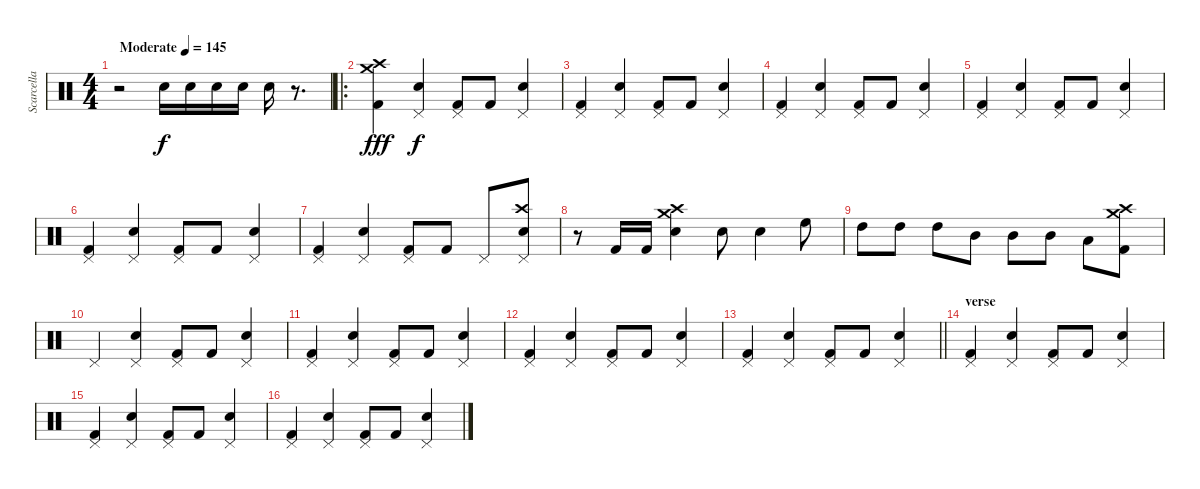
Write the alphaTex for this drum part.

\track ("Scarcella" "Scarcella") {instrument percussion}
\staff {score}
\articulation defaults
\ts (4 4)
\tempo (145 "Moderate")
\clef neutral
\ks c
r.2{dy f} "Snare (hit) 2".16 "Snare (hit) 2".16 "Snare (hit) 2".16 "Snare (hit) 2".16 "Snare (hit) 2".16 r.8{d} |
\ro
("Crash high (hit)" "Crash medium (hit)" "Kick (hit) 2").4{dy fff} ("Pedal Hi-Hat (hit)" "Snare (hit) 2").4{dy f} ("Pedal Hi-Hat (hit)" "Kick (hit) 2").8 "Kick (hit) 2".8 ("Pedal Hi-Hat (hit)" "Snare (hit) 2").4 |
("Pedal Hi-Hat (hit)" "Kick (hit) 2").4 ("Pedal Hi-Hat (hit)" "Snare (hit) 2").4 ("Pedal Hi-Hat (hit)" "Kick (hit) 2").8 "Kick (hit) 2".8 ("Pedal Hi-Hat (hit)" "Snare (hit) 2").4 |
("Pedal Hi-Hat (hit)" "Kick (hit) 2").4 ("Pedal Hi-Hat (hit)" "Snare (hit) 2").4 ("Pedal Hi-Hat (hit)" "Kick (hit) 2").8 "Kick (hit) 2".8 ("Pedal Hi-Hat (hit)" "Snare (hit) 2").4 |
("Pedal Hi-Hat (hit)" "Kick (hit) 2").4 ("Pedal Hi-Hat (hit)" "Snare (hit) 2").4 ("Pedal Hi-Hat (hit)" "Kick (hit) 2").8 "Kick (hit) 2".8 ("Pedal Hi-Hat (hit)" "Snare (hit) 2").4 |
("Pedal Hi-Hat (hit)" "Kick (hit) 2").4 ("Pedal Hi-Hat (hit)" "Snare (hit) 2").4 ("Pedal Hi-Hat (hit)" "Kick (hit) 2").8 "Kick (hit) 2".8 ("Pedal Hi-Hat (hit)" "Snare (hit) 2").4 |
("Pedal Hi-Hat (hit)" "Kick (hit) 2").4 ("Pedal Hi-Hat (hit)" "Snare (hit) 2").4 ("Pedal Hi-Hat (hit)" "Kick (hit) 2").8 "Kick (hit) 2".8 "Pedal Hi-Hat (hit)".8 ("Pedal Hi-Hat (hit)" "Snare (hit) 2" "Crash high (hit)").8 |
r.8 "Kick (hit) 2".16 "Kick (hit) 2".16 ("Crash high (hit)" "Crash medium (hit)" "Snare (hit) 2").4 "Snare (hit) 2".8 "Snare (hit) 2".4 "High Floor Tom (hit)".8 |
"High Tom (hit)".8 "High Tom (hit)".8 "High Tom (hit)".8 "Mid Tom (hit)".8 "Mid Tom (hit)".8 "Mid Tom (hit)".8 "Low Tom (hit)".8 ("Crash high (hit)" "Crash medium (hit)" "Kick (hit) 2").8 |
"Pedal Hi-Hat (hit)".4 ("Pedal Hi-Hat (hit)" "Snare (hit) 2").4 ("Pedal Hi-Hat (hit)" "Kick (hit) 2").8 "Kick (hit) 2".8 ("Pedal Hi-Hat (hit)" "Snare (hit) 2").4 |
("Pedal Hi-Hat (hit)" "Kick (hit) 2").4 ("Pedal Hi-Hat (hit)" "Snare (hit) 2").4 ("Pedal Hi-Hat (hit)" "Kick (hit) 2").8 "Kick (hit) 2".8 ("Pedal Hi-Hat (hit)" "Snare (hit) 2").4 |
("Pedal Hi-Hat (hit)" "Kick (hit) 2").4 ("Pedal Hi-Hat (hit)" "Snare (hit) 2").4 ("Pedal Hi-Hat (hit)" "Kick (hit) 2").8 "Kick (hit) 2".8 ("Pedal Hi-Hat (hit)" "Snare (hit) 2").4 |
\barLineRight lightlight
("Pedal Hi-Hat (hit)" "Kick (hit) 2").4 ("Pedal Hi-Hat (hit)" "Snare (hit) 2").4 ("Pedal Hi-Hat (hit)" "Kick (hit) 2").8 "Kick (hit) 2".8 ("Pedal Hi-Hat (hit)" "Snare (hit) 2").4 |
\section ("" "verse")
("Pedal Hi-Hat (hit)" "Kick (hit) 2").4 ("Pedal Hi-Hat (hit)" "Snare (hit) 2").4 ("Pedal Hi-Hat (hit)" "Kick (hit) 2").8 "Kick (hit) 2".8 ("Pedal Hi-Hat (hit)" "Snare (hit) 2").4 |
("Pedal Hi-Hat (hit)" "Kick (hit) 2").4 ("Pedal Hi-Hat (hit)" "Snare (hit) 2").4 ("Pedal Hi-Hat (hit)" "Kick (hit) 2").8 "Kick (hit) 2".8 ("Pedal Hi-Hat (hit)" "Snare (hit) 2").4 |
("Pedal Hi-Hat (hit)" "Kick (hit) 2").4 ("Pedal Hi-Hat (hit)" "Snare (hit) 2").4 ("Pedal Hi-Hat (hit)" "Kick (hit) 2").8 "Kick (hit) 2".8 ("Pedal Hi-Hat (hit)" "Snare (hit) 2").4
